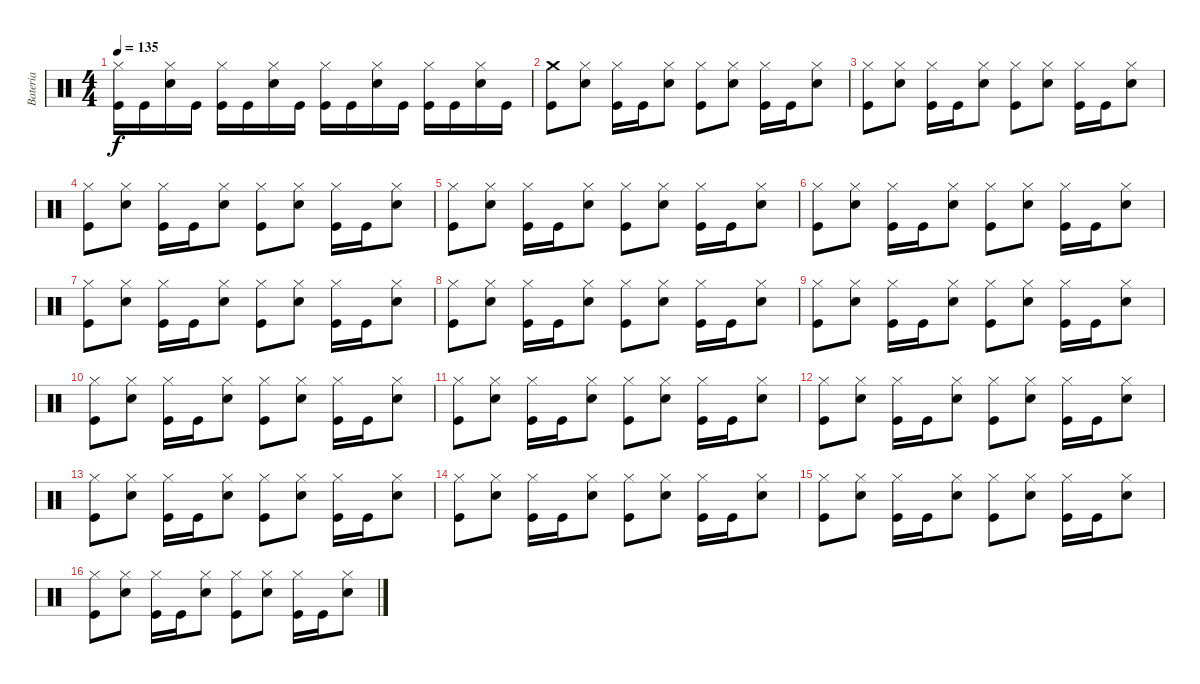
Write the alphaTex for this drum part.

\track ("Bateria" "Bateria") {instrument percussion}
\staff {score}
\articulation defaults
\ts (4 4)
\tempo 135
\clef neutral
\ks c
("Kick (hit)" "Hi-Hat (closed)").16{dy f} "Kick (hit)".16 ("Snare (hit) 2" "Hi-Hat (closed)").16 "Kick (hit)".16 ("Kick (hit)" "Hi-Hat (closed)").16 "Kick (hit)".16 ("Snare (hit) 2" "Hi-Hat (closed)").16 "Kick (hit)".16 ("Kick (hit)" "Hi-Hat (closed)").16 "Kick (hit)".16 ("Snare (hit) 2" "Hi-Hat (closed)").16 "Kick (hit)".16 ("Kick (hit)" "Hi-Hat (closed)").16 "Kick (hit)".16 ("Snare (hit) 2" "Hi-Hat (closed)").16 "Kick (hit)".16 |
("Kick (hit)" "Crash medium (hit)").8 ("Snare (hit) 2" "Hi-Hat (closed)").8 ("Kick (hit)" "Hi-Hat (closed)").16 "Kick (hit)".16 ("Snare (hit) 2" "Hi-Hat (closed)").8 ("Kick (hit)" "Hi-Hat (closed)").8 ("Snare (hit) 2" "Hi-Hat (closed)").8 ("Kick (hit)" "Hi-Hat (closed)").16 "Kick (hit)".16 ("Snare (hit) 2" "Hi-Hat (closed)").8 |
("Kick (hit)" "Hi-Hat (closed)").8 ("Snare (hit) 2" "Hi-Hat (closed)").8 ("Kick (hit)" "Hi-Hat (closed)").16 "Kick (hit)".16 ("Snare (hit) 2" "Hi-Hat (closed)").8 ("Kick (hit)" "Hi-Hat (closed)").8 ("Snare (hit) 2" "Hi-Hat (closed)").8 ("Kick (hit)" "Hi-Hat (closed)").16 "Kick (hit)".16 ("Snare (hit) 2" "Hi-Hat (closed)").8 |
("Kick (hit)" "Hi-Hat (closed)").8 ("Snare (hit) 2" "Hi-Hat (closed)").8 ("Kick (hit)" "Hi-Hat (closed)").16 "Kick (hit)".16 ("Snare (hit) 2" "Hi-Hat (closed)").8 ("Kick (hit)" "Hi-Hat (closed)").8 ("Snare (hit) 2" "Hi-Hat (closed)").8 ("Kick (hit)" "Hi-Hat (closed)").16 "Kick (hit)".16 ("Snare (hit) 2" "Hi-Hat (closed)").8 |
("Kick (hit)" "Hi-Hat (closed)").8 ("Snare (hit) 2" "Hi-Hat (closed)").8 ("Kick (hit)" "Hi-Hat (closed)").16 "Kick (hit)".16 ("Snare (hit) 2" "Hi-Hat (closed)").8 ("Kick (hit)" "Hi-Hat (closed)").8 ("Snare (hit) 2" "Hi-Hat (closed)").8 ("Kick (hit)" "Hi-Hat (closed)").16 "Kick (hit)".16 ("Snare (hit) 2" "Hi-Hat (closed)").8 |
("Kick (hit)" "Hi-Hat (closed)").8 ("Snare (hit) 2" "Hi-Hat (closed)").8 ("Kick (hit)" "Hi-Hat (closed)").16 "Kick (hit)".16 ("Snare (hit) 2" "Hi-Hat (closed)").8 ("Kick (hit)" "Hi-Hat (closed)").8 ("Snare (hit) 2" "Hi-Hat (closed)").8 ("Kick (hit)" "Hi-Hat (closed)").16 "Kick (hit)".16 ("Snare (hit) 2" "Hi-Hat (closed)").8 |
("Kick (hit)" "Hi-Hat (closed)").8 ("Snare (hit) 2" "Hi-Hat (closed)").8 ("Kick (hit)" "Hi-Hat (closed)").16 "Kick (hit)".16 ("Snare (hit) 2" "Hi-Hat (closed)").8 ("Kick (hit)" "Hi-Hat (closed)").8 ("Snare (hit) 2" "Hi-Hat (closed)").8 ("Kick (hit)" "Hi-Hat (closed)").16 "Kick (hit)".16 ("Snare (hit) 2" "Hi-Hat (closed)").8 |
("Kick (hit)" "Hi-Hat (closed)").8 ("Snare (hit) 2" "Hi-Hat (closed)").8 ("Kick (hit)" "Hi-Hat (closed)").16 "Kick (hit)".16 ("Snare (hit) 2" "Hi-Hat (closed)").8 ("Kick (hit)" "Hi-Hat (closed)").8 ("Snare (hit) 2" "Hi-Hat (closed)").8 ("Kick (hit)" "Hi-Hat (closed)").16 "Kick (hit)".16 ("Snare (hit) 2" "Hi-Hat (closed)").8 |
("Kick (hit)" "Hi-Hat (closed)").8 ("Snare (hit) 2" "Hi-Hat (closed)").8 ("Kick (hit)" "Hi-Hat (closed)").16 "Kick (hit)".16 ("Snare (hit) 2" "Hi-Hat (closed)").8 ("Kick (hit)" "Hi-Hat (closed)").8 ("Snare (hit) 2" "Hi-Hat (closed)").8 ("Kick (hit)" "Hi-Hat (closed)").16 "Kick (hit)".16 ("Snare (hit) 2" "Hi-Hat (closed)").8 |
("Kick (hit)" "Hi-Hat (closed)").8 ("Snare (hit) 2" "Hi-Hat (closed)").8 ("Kick (hit)" "Hi-Hat (closed)").16 "Kick (hit)".16 ("Snare (hit) 2" "Hi-Hat (closed)").8 ("Kick (hit)" "Hi-Hat (closed)").8 ("Snare (hit) 2" "Hi-Hat (closed)").8 ("Kick (hit)" "Hi-Hat (closed)").16 "Kick (hit)".16 ("Snare (hit) 2" "Hi-Hat (closed)").8 |
("Kick (hit)" "Hi-Hat (closed)").8 ("Snare (hit) 2" "Hi-Hat (closed)").8 ("Kick (hit)" "Hi-Hat (closed)").16 "Kick (hit)".16 ("Snare (hit) 2" "Hi-Hat (closed)").8 ("Kick (hit)" "Hi-Hat (closed)").8 ("Snare (hit) 2" "Hi-Hat (closed)").8 ("Kick (hit)" "Hi-Hat (closed)").16 "Kick (hit)".16 ("Snare (hit) 2" "Hi-Hat (closed)").8 |
("Kick (hit)" "Hi-Hat (closed)").8 ("Snare (hit) 2" "Hi-Hat (closed)").8 ("Kick (hit)" "Hi-Hat (closed)").16 "Kick (hit)".16 ("Snare (hit) 2" "Hi-Hat (closed)").8 ("Kick (hit)" "Hi-Hat (closed)").8 ("Snare (hit) 2" "Hi-Hat (closed)").8 ("Kick (hit)" "Hi-Hat (closed)").16 "Kick (hit)".16 ("Snare (hit) 2" "Hi-Hat (closed)").8 |
("Kick (hit)" "Hi-Hat (closed)").8 ("Snare (hit) 2" "Hi-Hat (closed)").8 ("Kick (hit)" "Hi-Hat (closed)").16 "Kick (hit)".16 ("Snare (hit) 2" "Hi-Hat (closed)").8 ("Kick (hit)" "Hi-Hat (closed)").8 ("Snare (hit) 2" "Hi-Hat (closed)").8 ("Kick (hit)" "Hi-Hat (closed)").16 "Kick (hit)".16 ("Snare (hit) 2" "Hi-Hat (closed)").8 |
("Kick (hit)" "Hi-Hat (closed)").8 ("Snare (hit) 2" "Hi-Hat (closed)").8 ("Kick (hit)" "Hi-Hat (closed)").16 "Kick (hit)".16 ("Snare (hit) 2" "Hi-Hat (closed)").8 ("Kick (hit)" "Hi-Hat (closed)").8 ("Snare (hit) 2" "Hi-Hat (closed)").8 ("Kick (hit)" "Hi-Hat (closed)").16 "Kick (hit)".16 ("Snare (hit) 2" "Hi-Hat (closed)").8 |
("Kick (hit)" "Hi-Hat (closed)").8 ("Snare (hit) 2" "Hi-Hat (closed)").8 ("Kick (hit)" "Hi-Hat (closed)").16 "Kick (hit)".16 ("Snare (hit) 2" "Hi-Hat (closed)").8 ("Kick (hit)" "Hi-Hat (closed)").8 ("Snare (hit) 2" "Hi-Hat (closed)").8 ("Kick (hit)" "Hi-Hat (closed)").16 "Kick (hit)".16 ("Snare (hit) 2" "Hi-Hat (closed)").8 |
("Kick (hit)" "Hi-Hat (closed)").8 ("Snare (hit) 2" "Hi-Hat (closed)").8 ("Kick (hit)" "Hi-Hat (closed)").16 "Kick (hit)".16 ("Snare (hit) 2" "Hi-Hat (closed)").8 ("Kick (hit)" "Hi-Hat (closed)").8 ("Snare (hit) 2" "Hi-Hat (closed)").8 ("Kick (hit)" "Hi-Hat (closed)").16 "Kick (hit)".16 ("Snare (hit) 2" "Hi-Hat (closed)").8
